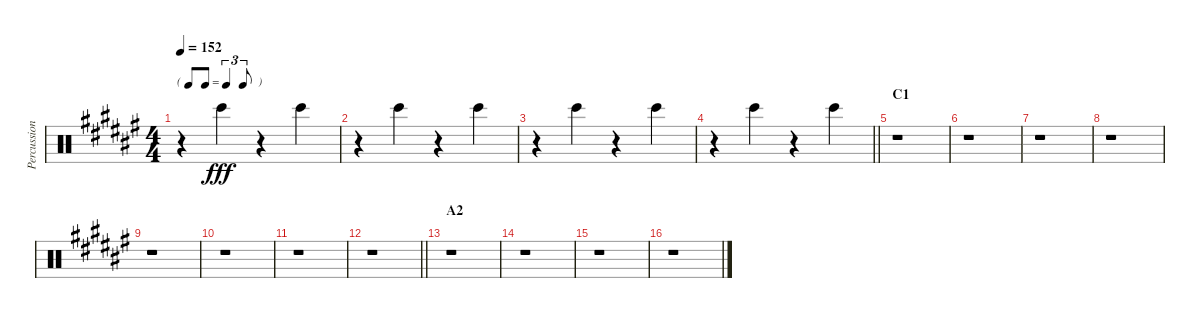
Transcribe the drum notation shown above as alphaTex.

\track ("Percussion" "Percussion") {instrument percussion}
\staff {score}
\articulation defaults
\ts (4 4)
\tf triplet8th
\tempo 152
\clef neutral
\ks f#
r.4{dy fff} "Bongo High (hit)".4 r.4 "Bongo High (hit)".4 |
r.4 "Bongo High (hit)".4 r.4 "Bongo High (hit)".4 |
r.4 "Bongo High (hit)".4 r.4 "Bongo High (hit)".4 |
\barLineRight lightlight
r.4 "Bongo High (hit)".4 r.4 "Bongo High (hit)".4 |
\section ("" "C1")
r.1 |
r.1 |
r.1 |
r.1 |
r.1 |
r.1 |
r.1 |
\barLineRight lightlight
r.1 |
\section ("" "A2")
r.1 |
r.1 |
r.1 |
r.1
